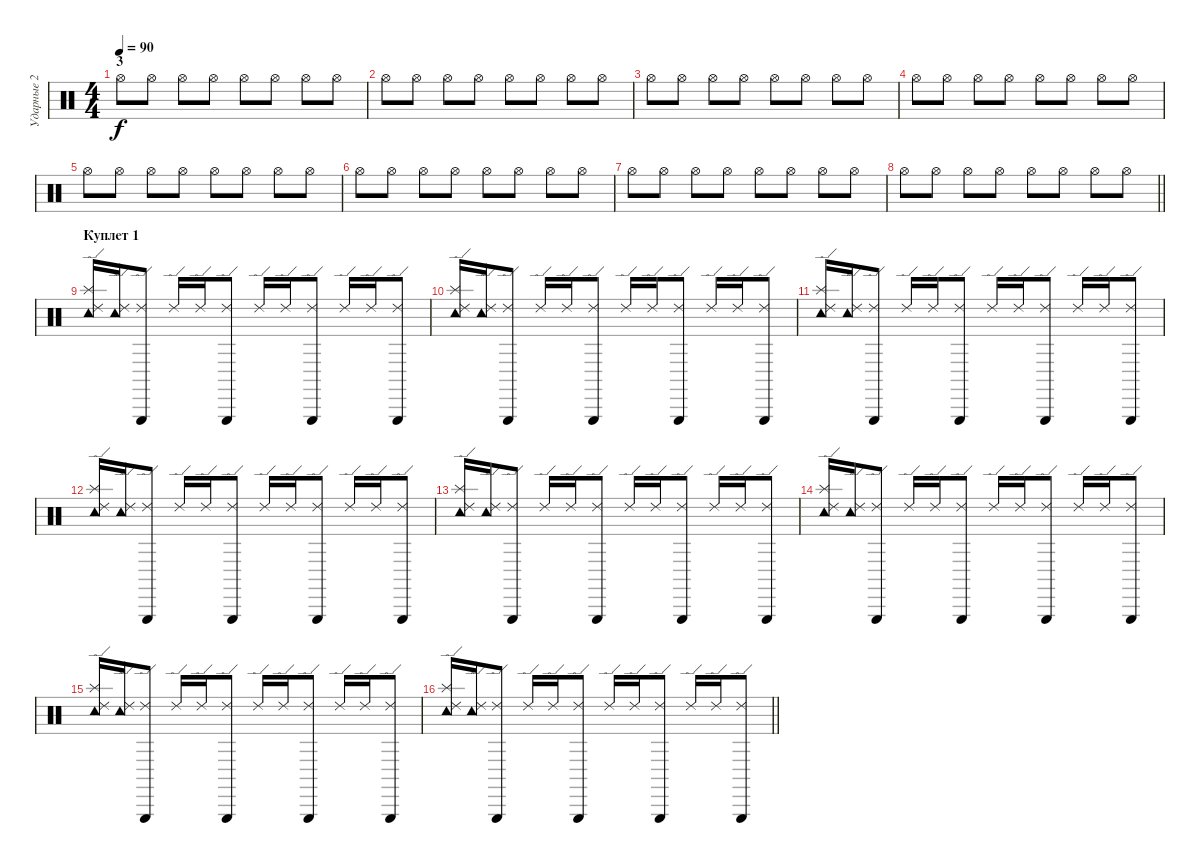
\track ("Ударные 2" "Ударные 2") {instrument percussion}
\staff {score}
\articulation defaults
\ts (4 4)
\section ("" "3")
\tempo 90
\clef neutral
\ks c "Hi-Hat (open)".8{dy f} "Hi-Hat (open)".8 "Hi-Hat (open)".8 "Hi-Hat (open)".8 "Hi-Hat (open)".8 "Hi-Hat (open)".8 "Hi-Hat (open)".8 "Hi-Hat (open)".8
|
"Hi-Hat (open)".8 "Hi-Hat (open)".8 "Hi-Hat (open)".8 "Hi-Hat (open)".8 "Hi-Hat (open)".8 "Hi-Hat (open)".8 "Hi-Hat (open)".8 "Hi-Hat (open)".8 |
"Hi-Hat (open)".8 "Hi-Hat (open)".8 "Hi-Hat (open)".8 "Hi-Hat (open)".8 "Hi-Hat (open)".8 "Hi-Hat (open)".8 "Hi-Hat (open)".8 "Hi-Hat (open)".8 |
"Hi-Hat (open)".8 "Hi-Hat (open)".8 "Hi-Hat (open)".8 "Hi-Hat (open)".8 "Hi-Hat (open)".8 "Hi-Hat (open)".8 "Hi-Hat (open)".8 "Hi-Hat (open)".8 |
"Hi-Hat (open)".8 "Hi-Hat (open)".8 "Hi-Hat (open)".8 "Hi-Hat (open)".8 "Hi-Hat (open)".8 "Hi-Hat (open)".8 "Hi-Hat (open)".8 "Hi-Hat (open)".8 |
"Hi-Hat (open)".8 "Hi-Hat (open)".8 "Hi-Hat (open)".8 "Hi-Hat (open)".8 "Hi-Hat (open)".8 "Hi-Hat (open)".8 "Hi-Hat (open)".8 "Hi-Hat (open)".8 |
"Hi-Hat (open)".8 "Hi-Hat (open)".8 "Hi-Hat (open)".8 "Hi-Hat (open)".8 "Hi-Hat (open)".8 "Hi-Hat (open)".8 "Hi-Hat (open)".8 "Hi-Hat (open)".8 |
\barLineRight lightlight "Hi-Hat (open)".8 "Hi-Hat (open)".8 "Hi-Hat (open)".8 "Hi-Hat (open)".8 "Hi-Hat (open)".8 "Hi-Hat (open)".8 "Hi-Hat (open)".8 "Hi-Hat (open)".8
|
\section ("" "Куплет 1")
("Splash (hit)" "Tambourine (hit)" "Ride (edge) 2").16 ("Tambourine (hit)" "Ride (edge) 2").16 ("Triangle (hit)" "Ride (edge) 2").8 "Ride (edge) 2".16 "Ride (edge) 2".16 ("Triangle (hit)" "Ride (edge) 2").8 "Ride (edge) 2".16 "Ride (edge) 2".16 ("Triangle (hit)" "Ride (edge) 2").8 "Ride (edge) 2".16 "Ride (edge) 2".16 ("Triangle (hit)" "Ride (edge) 2").8 |
("Splash (hit)" "Tambourine (hit)" "Ride (edge) 2").16 ("Tambourine (hit)" "Ride (edge) 2").16 ("Triangle (hit)" "Ride (edge) 2").8 "Ride (edge) 2".16 "Ride (edge) 2".16 ("Triangle (hit)" "Ride (edge) 2").8 "Ride (edge) 2".16 "Ride (edge) 2".16 ("Triangle (hit)" "Ride (edge) 2").8 "Ride (edge) 2".16 "Ride (edge) 2".16 ("Triangle (hit)" "Ride (edge) 2").8 |
("Splash (hit)" "Tambourine (hit)" "Ride (edge) 2").16 ("Tambourine (hit)" "Ride (edge) 2").16 ("Triangle (hit)" "Ride (edge) 2").8 "Ride (edge) 2".16 "Ride (edge) 2".16 ("Triangle (hit)" "Ride (edge) 2").8 "Ride (edge) 2".16 "Ride (edge) 2".16 ("Triangle (hit)" "Ride (edge) 2").8 "Ride (edge) 2".16 "Ride (edge) 2".16 ("Triangle (hit)" "Ride (edge) 2").8 |
("Splash (hit)" "Tambourine (hit)" "Ride (edge) 2").16 ("Tambourine (hit)" "Ride (edge) 2").16 ("Triangle (hit)" "Ride (edge) 2").8 "Ride (edge) 2".16 "Ride (edge) 2".16 ("Triangle (hit)" "Ride (edge) 2").8 "Ride (edge) 2".16 "Ride (edge) 2".16 ("Triangle (hit)" "Ride (edge) 2").8 "Ride (edge) 2".16 "Ride (edge) 2".16 ("Triangle (hit)" "Ride (edge) 2").8 |
("Splash (hit)" "Tambourine (hit)" "Ride (edge) 2").16 ("Tambourine (hit)" "Ride (edge) 2").16 ("Triangle (hit)" "Ride (edge) 2").8 "Ride (edge) 2".16 "Ride (edge) 2".16 ("Triangle (hit)" "Ride (edge) 2").8 "Ride (edge) 2".16 "Ride (edge) 2".16 ("Triangle (hit)" "Ride (edge) 2").8 "Ride (edge) 2".16 "Ride (edge) 2".16 ("Triangle (hit)" "Ride (edge) 2").8 |
("Splash (hit)" "Tambourine (hit)" "Ride (edge) 2").16 ("Tambourine (hit)" "Ride (edge) 2").16 ("Triangle (hit)" "Ride (edge) 2").8 "Ride (edge) 2".16 "Ride (edge) 2".16 ("Triangle (hit)" "Ride (edge) 2").8 "Ride (edge) 2".16 "Ride (edge) 2".16 ("Triangle (hit)" "Ride (edge) 2").8 "Ride (edge) 2".16 "Ride (edge) 2".16 ("Triangle (hit)" "Ride (edge) 2").8 |
("Splash (hit)" "Tambourine (hit)" "Ride (edge) 2").16 ("Tambourine (hit)" "Ride (edge) 2").16 ("Triangle (hit)" "Ride (edge) 2").8 "Ride (edge) 2".16 "Ride (edge) 2".16 ("Triangle (hit)" "Ride (edge) 2").8 "Ride (edge) 2".16 "Ride (edge) 2".16 ("Triangle (hit)" "Ride (edge) 2").8 "Ride (edge) 2".16 "Ride (edge) 2".16 ("Triangle (hit)" "Ride (edge) 2").8 |
\barLineRight lightlight
("Splash (hit)" "Tambourine (hit)" "Ride (edge) 2").16 ("Tambourine (hit)" "Ride (edge) 2").16 ("Triangle (hit)" "Ride (edge) 2").8 "Ride (edge) 2".16 "Ride (edge) 2".16 ("Triangle (hit)" "Ride (edge) 2").8 "Ride (edge) 2".16 "Ride (edge) 2".16 ("Triangle (hit)" "Ride (edge) 2").8 "Ride (edge) 2".16 "Ride (edge) 2".16 ("Triangle (hit)" "Ride (edge) 2").8
